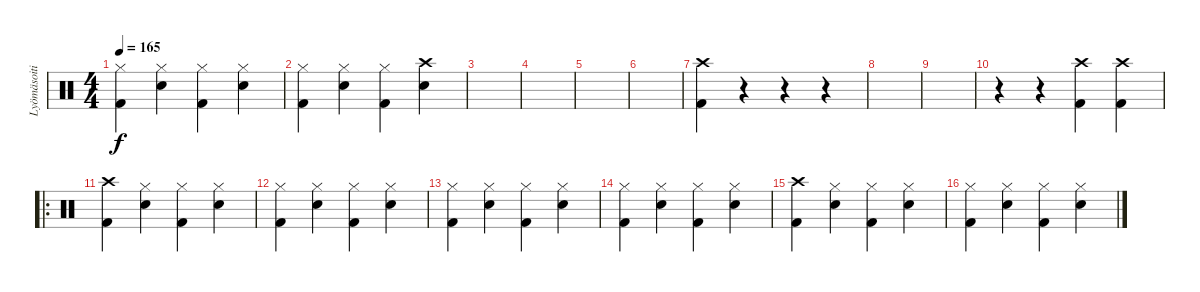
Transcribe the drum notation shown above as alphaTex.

\track ("Lyömäsoitin" "Lyömäsoiti") {instrument percussion}
\staff {score}
\articulation defaults
\ts (4 4)
\tempo 165
\clef neutral
\ks c
("Hi-Hat (closed)" "Kick (hit) 2").4{dy f} ("Hi-Hat (closed)" "Snare (hit) 2").4 ("Hi-Hat (closed)" "Kick (hit) 2").4 ("Hi-Hat (closed)" "Snare (hit) 2").4 |
("Hi-Hat (closed)" "Kick (hit) 2").4 ("Hi-Hat (closed)" "Snare (hit) 2").4 ("Hi-Hat (closed)" "Kick (hit) 2").4 ("Crash high (hit)" "Snare (hit) 2").4 |
|
|
|
|
("Crash high (hit)" "Kick (hit) 2").4 r.4 r.4 r.4 |
|
|
r.4 r.4 ("Crash high (hit)" "Kick (hit) 2").4 ("Crash high (hit)" "Kick (hit) 2").4 |
\ro
("Crash high (hit)" "Kick (hit) 2").4 ("Hi-Hat (closed)" "Snare (hit) 2").4 ("Hi-Hat (closed)" "Kick (hit) 2").4 ("Hi-Hat (closed)" "Snare (hit) 2").4 |
("Hi-Hat (closed)" "Kick (hit) 2").4 ("Hi-Hat (closed)" "Snare (hit) 2").4 ("Hi-Hat (closed)" "Kick (hit) 2").4 ("Hi-Hat (closed)" "Snare (hit) 2").4 |
("Hi-Hat (closed)" "Kick (hit) 2").4 ("Hi-Hat (closed)" "Snare (hit) 2").4 ("Hi-Hat (closed)" "Kick (hit) 2").4 ("Hi-Hat (closed)" "Snare (hit) 2").4 |
("Hi-Hat (closed)" "Kick (hit) 2").4 ("Hi-Hat (closed)" "Snare (hit) 2").4 ("Hi-Hat (closed)" "Kick (hit) 2").4 ("Hi-Hat (closed)" "Snare (hit) 2").4 |
("Crash high (hit)" "Kick (hit) 2").4 ("Hi-Hat (closed)" "Snare (hit) 2").4 ("Hi-Hat (closed)" "Kick (hit) 2").4 ("Hi-Hat (closed)" "Snare (hit) 2").4 |
("Hi-Hat (closed)" "Kick (hit) 2").4 ("Hi-Hat (closed)" "Snare (hit) 2").4 ("Hi-Hat (closed)" "Kick (hit) 2").4 ("Hi-Hat (closed)" "Snare (hit) 2").4
